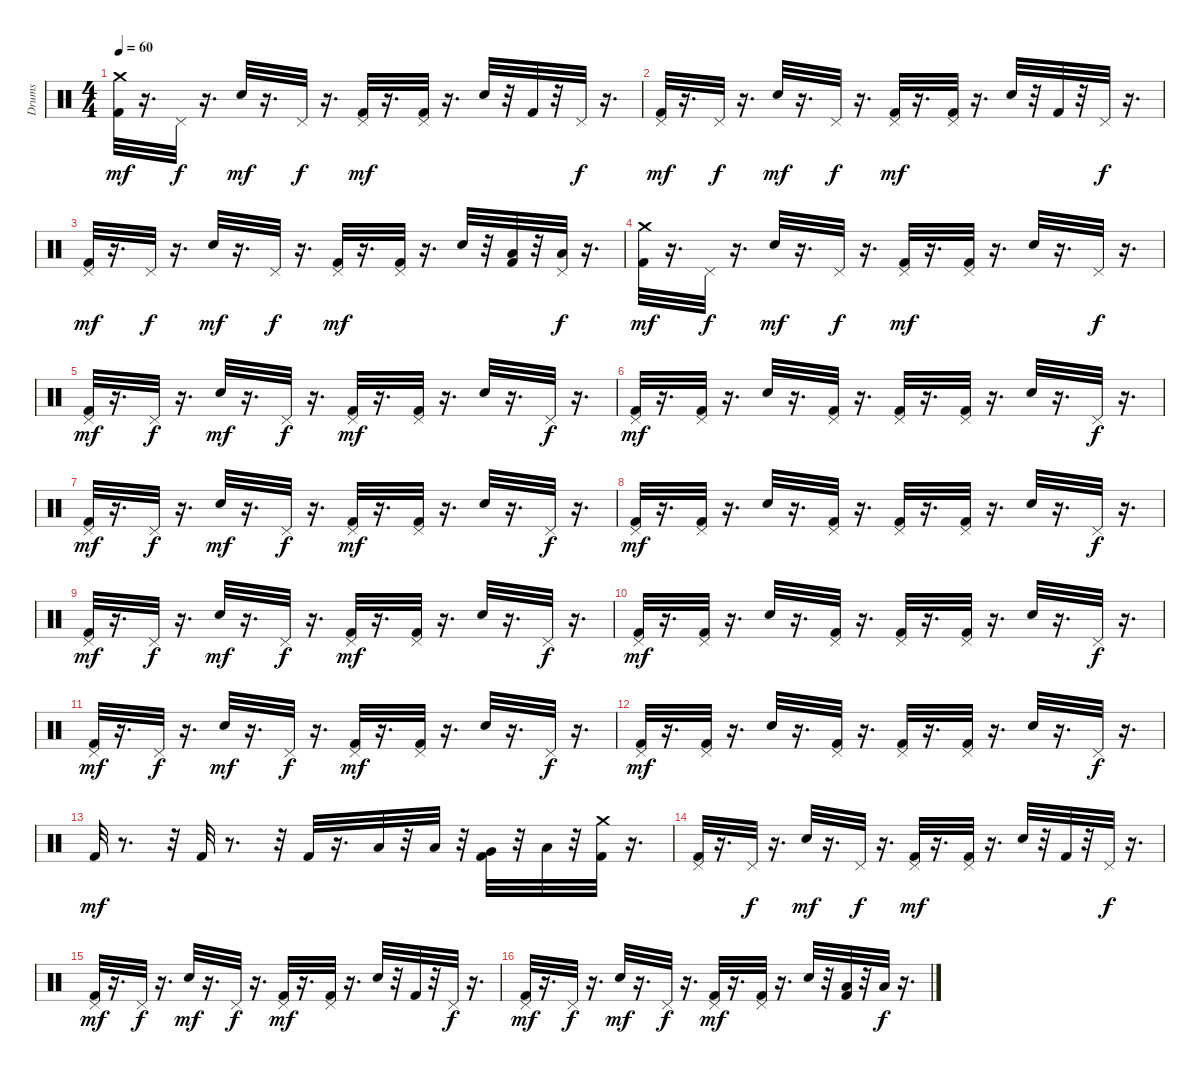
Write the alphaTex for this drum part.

\track ("Drums" "Drums") {instrument percussion}
\staff {score}
\articulation defaults
\ts (4 4)
\tempo 60
\clef neutral
\ks c
("Crash medium (hit)" "Kick (hit) 2").32{dy mf} r.16{d} "Pedal Hi-Hat (hit)".32{dy f} r.16{d} "Electric Snare (hit)".32{dy mf} r.16{d} "Pedal Hi-Hat (hit)".32{dy f} r.16{d} ("Pedal Hi-Hat (hit)" "Kick (hit) 2").32{dy mf} r.16{d} ("Kick (hit) 2" "Pedal Hi-Hat (hit)").32 r.16{d} "Electric Snare (hit)".32 r.32 "Kick (hit) 2".32 r.32 "Pedal Hi-Hat (hit)".32{dy f} r.16{d} |
("Pedal Hi-Hat (hit)" "Kick (hit) 2").32{dy mf} r.16{d} "Pedal Hi-Hat (hit)".32{dy f} r.16{d} "Electric Snare (hit)".32{dy mf} r.16{d} "Pedal Hi-Hat (hit)".32{dy f} r.16{d} ("Pedal Hi-Hat (hit)" "Kick (hit) 2").32{dy mf} r.16{d} ("Kick (hit) 2" "Pedal Hi-Hat (hit)").32 r.16{d} "Electric Snare (hit)".32 r.32 "Kick (hit) 2".32 r.32 "Pedal Hi-Hat (hit)".32{dy f} r.16{d} |
("Pedal Hi-Hat (hit)" "Kick (hit) 2").32{dy mf} r.16{d} "Pedal Hi-Hat (hit)".32{dy f} r.16{d} "Electric Snare (hit)".32{dy mf} r.16{d} "Pedal Hi-Hat (hit)".32{dy f} r.16{d} ("Pedal Hi-Hat (hit)" "Kick (hit) 2").32{dy mf} r.16{d} ("Kick (hit) 2" "Pedal Hi-Hat (hit)").32 r.16{d} "Electric Snare (hit)".32 r.32 ("Low Floor Tom (hit)" "Kick (hit) 2").32 r.32 ("Low Floor Tom (hit)" "Pedal Hi-Hat (hit)").32{dy f} r.16{d} |
("Crash medium (hit)" "Kick (hit) 2").32{dy mf} r.16{d} "Pedal Hi-Hat (hit)".32{dy f} r.16{d} "Electric Snare (hit)".32{dy mf} r.16{d} "Pedal Hi-Hat (hit)".32{dy f} r.16{d} ("Pedal Hi-Hat (hit)" "Kick (hit) 2").32{dy mf} r.16{d} ("Kick (hit) 2" "Pedal Hi-Hat (hit)").32 r.16{d} "Electric Snare (hit)".32 r.16{d} "Pedal Hi-Hat (hit)".32{dy f} r.16{d} |
("Pedal Hi-Hat (hit)" "Kick (hit) 2").32{dy mf} r.16{d} "Pedal Hi-Hat (hit)".32{dy f} r.16{d} "Electric Snare (hit)".32{dy mf} r.16{d} "Pedal Hi-Hat (hit)".32{dy f} r.16{d} ("Pedal Hi-Hat (hit)" "Kick (hit) 2").32{dy mf} r.16{d} ("Kick (hit) 2" "Pedal Hi-Hat (hit)").32 r.16{d} "Electric Snare (hit)".32 r.16{d} "Pedal Hi-Hat (hit)".32{dy f} r.16{d} |
("Pedal Hi-Hat (hit)" "Kick (hit) 2").32{dy mf} r.16{d} ("Kick (hit) 2" "Pedal Hi-Hat (hit)").32 r.16{d} "Electric Snare (hit)".32 r.16{d} ("Pedal Hi-Hat (hit)" "Kick (hit) 2").32 r.16{d} ("Kick (hit) 2" "Pedal Hi-Hat (hit)").32 r.16{d} ("Kick (hit) 2" "Pedal Hi-Hat (hit)").32 r.16{d} "Electric Snare (hit)".32 r.16{d} "Pedal Hi-Hat (hit)".32{dy f} r.16{d} |
("Pedal Hi-Hat (hit)" "Kick (hit) 2").32{dy mf} r.16{d} "Pedal Hi-Hat (hit)".32{dy f} r.16{d} "Electric Snare (hit)".32{dy mf} r.16{d} "Pedal Hi-Hat (hit)".32{dy f} r.16{d} ("Pedal Hi-Hat (hit)" "Kick (hit) 2").32{dy mf} r.16{d} ("Kick (hit) 2" "Pedal Hi-Hat (hit)").32 r.16{d} "Electric Snare (hit)".32 r.16{d} "Pedal Hi-Hat (hit)".32{dy f} r.16{d} |
("Pedal Hi-Hat (hit)" "Kick (hit) 2").32{dy mf} r.16{d} ("Kick (hit) 2" "Pedal Hi-Hat (hit)").32 r.16{d} "Electric Snare (hit)".32 r.16{d} ("Pedal Hi-Hat (hit)" "Kick (hit) 2").32 r.16{d} ("Kick (hit) 2" "Pedal Hi-Hat (hit)").32 r.16{d} ("Kick (hit) 2" "Pedal Hi-Hat (hit)").32 r.16{d} "Electric Snare (hit)".32 r.16{d} "Pedal Hi-Hat (hit)".32{dy f} r.16{d} |
("Pedal Hi-Hat (hit)" "Kick (hit) 2").32{dy mf} r.16{d} "Pedal Hi-Hat (hit)".32{dy f} r.16{d} "Electric Snare (hit)".32{dy mf} r.16{d} "Pedal Hi-Hat (hit)".32{dy f} r.16{d} ("Pedal Hi-Hat (hit)" "Kick (hit) 2").32{dy mf} r.16{d} ("Kick (hit) 2" "Pedal Hi-Hat (hit)").32 r.16{d} "Electric Snare (hit)".32 r.16{d} "Pedal Hi-Hat (hit)".32{dy f} r.16{d} |
("Pedal Hi-Hat (hit)" "Kick (hit) 2").32{dy mf} r.16{d} ("Kick (hit) 2" "Pedal Hi-Hat (hit)").32 r.16{d} "Electric Snare (hit)".32 r.16{d} ("Pedal Hi-Hat (hit)" "Kick (hit) 2").32 r.16{d} ("Kick (hit) 2" "Pedal Hi-Hat (hit)").32 r.16{d} ("Kick (hit) 2" "Pedal Hi-Hat (hit)").32 r.16{d} "Electric Snare (hit)".32 r.16{d} "Pedal Hi-Hat (hit)".32{dy f} r.16{d} |
("Pedal Hi-Hat (hit)" "Kick (hit) 2").32{dy mf} r.16{d} "Pedal Hi-Hat (hit)".32{dy f} r.16{d} "Electric Snare (hit)".32{dy mf} r.16{d} "Pedal Hi-Hat (hit)".32{dy f} r.16{d} ("Pedal Hi-Hat (hit)" "Kick (hit) 2").32{dy mf} r.16{d} ("Kick (hit) 2" "Pedal Hi-Hat (hit)").32 r.16{d} "Electric Snare (hit)".32 r.16{d} "Pedal Hi-Hat (hit)".32{dy f} r.16{d} |
("Pedal Hi-Hat (hit)" "Kick (hit) 2").32{dy mf} r.16{d} ("Kick (hit) 2" "Pedal Hi-Hat (hit)").32 r.16{d} "Electric Snare (hit)".32 r.16{d} ("Pedal Hi-Hat (hit)" "Kick (hit) 2").32 r.16{d} ("Kick (hit) 2" "Pedal Hi-Hat (hit)").32 r.16{d} ("Kick (hit) 2" "Pedal Hi-Hat (hit)").32 r.16{d} "Electric Snare (hit)".32 r.16{d} "Pedal Hi-Hat (hit)".32{dy f} r.16{d} |
"Kick (hit) 2".32{dy mf} r.8{d} r.32 "Kick (hit) 2".32 r.8{d} r.32 "Kick (hit) 2".32 r.16{d} "Low Tom (hit)".32 r.32 "Low Tom (hit)".32 r.32 ("Very Low Tom (hit)" "Kick (hit) 2").32 r.32 "Low Floor Tom (hit)".32 r.32 ("Kick (hit) 2" "Crash medium (hit)").32 r.16{d} |
("Pedal Hi-Hat (hit)" "Kick (hit) 2").32 r.16{d} "Pedal Hi-Hat (hit)".32{dy f} r.16{d} "Electric Snare (hit)".32{dy mf} r.16{d} "Pedal Hi-Hat (hit)".32{dy f} r.16{d} ("Pedal Hi-Hat (hit)" "Kick (hit) 2").32{dy mf} r.16{d} ("Kick (hit) 2" "Pedal Hi-Hat (hit)").32 r.16{d} "Electric Snare (hit)".32 r.32 "Kick (hit) 2".32 r.32 "Pedal Hi-Hat (hit)".32{dy f} r.16{d} |
("Pedal Hi-Hat (hit)" "Kick (hit) 2").32{dy mf} r.16{d} "Pedal Hi-Hat (hit)".32{dy f} r.16{d} "Electric Snare (hit)".32{dy mf} r.16{d} "Pedal Hi-Hat (hit)".32{dy f} r.16{d} ("Pedal Hi-Hat (hit)" "Kick (hit) 2").32{dy mf} r.16{d} ("Kick (hit) 2" "Pedal Hi-Hat (hit)").32 r.16{d} "Electric Snare (hit)".32 r.32 "Kick (hit) 2".32 r.32 "Pedal Hi-Hat (hit)".32{dy f} r.16{d} |
("Pedal Hi-Hat (hit)" "Kick (hit) 2").32{dy mf} r.16{d} "Pedal Hi-Hat (hit)".32{dy f} r.16{d} "Electric Snare (hit)".32{dy mf} r.16{d} "Pedal Hi-Hat (hit)".32{dy f} r.16{d} ("Pedal Hi-Hat (hit)" "Kick (hit) 2").32{dy mf} r.16{d} ("Kick (hit) 2" "Pedal Hi-Hat (hit)").32 r.16{d} "Electric Snare (hit)".32 r.32 ("Low Floor Tom (hit)" "Kick (hit) 2").32 r.32 "Low Floor Tom (hit)".32{dy f} r.16{d}
